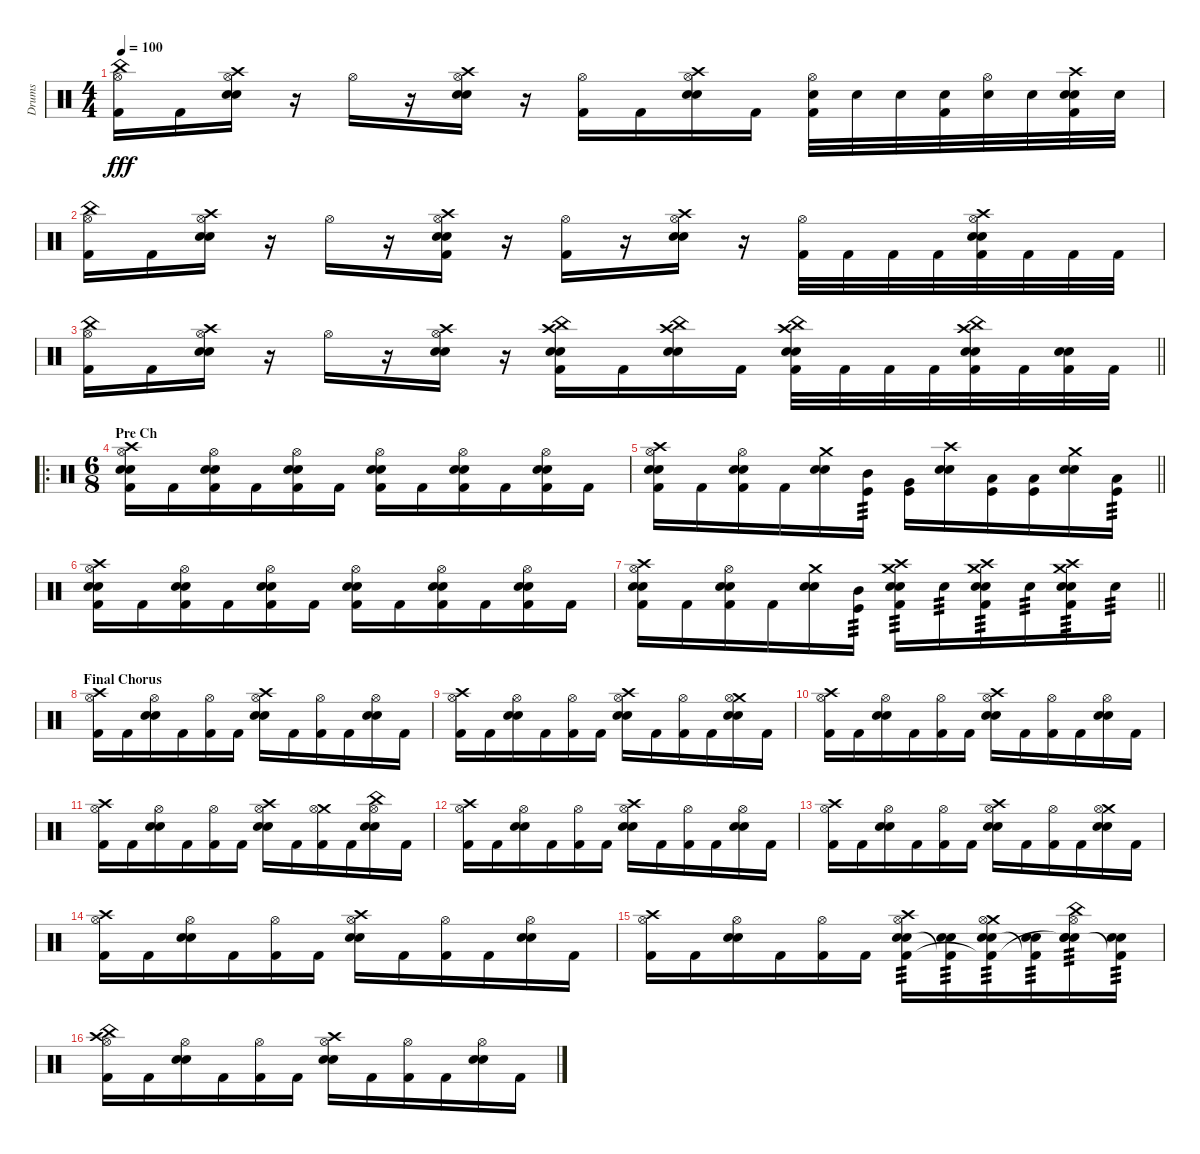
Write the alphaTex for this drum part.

\track ("Drums" "Drums") {instrument percussion}
\staff {score}
\articulation defaults
\ts (4 4)
\tempo 100
\clef neutral
\ks c
("Hi-Hat (open)" "China (hit)" "Kick (hit) 2").16{dy fff} "Kick (hit) 2".16 ("Hi-Hat (open)" "Crash high (hit)" "Snare (hit) 2" "Electric Snare (hit)").16 r.16 "Hi-Hat (open)".16 r.16 ("Hi-Hat (open)" "Crash high (hit)" "Snare (hit) 2" "Electric Snare (hit)").16 r.16 ("Hi-Hat (open)" "Kick (hit) 2").16 "Kick (hit) 2".16 ("Hi-Hat (open)" "Crash high (hit)" "Snare (hit) 2" "Electric Snare (hit)").16 "Kick (hit) 2".16 ("Hi-Hat (open)" "Electric Snare (hit)" "Kick (hit) 2").32 "Electric Snare (hit)".32 "Electric Snare (hit)".32 ("Electric Snare (hit)" "Kick (hit) 2").32 ("Hi-Hat (open)" "Electric Snare (hit)").32 "Electric Snare (hit)".32 ("Crash high (hit)" "Snare (hit) 2" "Electric Snare (hit)" "Kick (hit) 2").32 "Electric Snare (hit)".32 |
("Hi-Hat (open)" "China (hit)" "Kick (hit) 2").16 "Kick (hit) 2".16 ("Hi-Hat (open)" "Crash high (hit)" "Snare (hit) 2" "Electric Snare (hit)").16 r.16 "Hi-Hat (open)".16 r.16 ("Hi-Hat (open)" "Crash high (hit)" "Snare (hit) 2" "Electric Snare (hit)" "Kick (hit) 2").16 r.16 ("Hi-Hat (open)" "Kick (hit) 2").16 r.16 ("Hi-Hat (open)" "Crash high (hit)" "Snare (hit) 2" "Electric Snare (hit)").16 r.16 ("Hi-Hat (open)" "Kick (hit) 2").32 "Kick (hit) 2".32 "Kick (hit) 2".32 "Kick (hit) 2".32 ("Hi-Hat (open)" "Crash high (hit)" "Snare (hit) 2" "Electric Snare (hit)" "Kick (hit) 2").32 "Kick (hit) 2".32 "Kick (hit) 2".32 "Kick (hit) 2".32 |
\barLineRight lightlight
("Hi-Hat (open)" "China (hit)" "Kick (hit) 2").16 "Kick (hit) 2".16 ("Hi-Hat (open)" "Crash high (hit)" "Snare (hit) 2" "Electric Snare (hit)").16 r.16 "Hi-Hat (open)".16 r.16 ("Hi-Hat (open)" "Crash high (hit)" "Snare (hit) 2" "Electric Snare (hit)").16 r.16 ("China (hit)" "Crash high (hit)" "Snare (hit) 2" "Electric Snare (hit)" "Kick (hit) 2").16 "Kick (hit) 2".16 ("China (hit)" "Crash high (hit)" "Snare (hit) 2" "Electric Snare (hit)").16 "Kick (hit) 2".16 ("China (hit)" "Crash high (hit)" "Snare (hit) 2" "Electric Snare (hit)" "Kick (hit) 2").32 "Kick (hit) 2".32 "Kick (hit) 2".32 "Kick (hit) 2".32 ("China (hit)" "Crash high (hit)" "Snare (hit) 2" "Electric Snare (hit)" "Kick (hit) 2").32 "Kick (hit) 2".32 ("Snare (hit) 2" "Electric Snare (hit)" "Kick (hit) 2").32 "Kick (hit) 2".32 |
\ro
\ts (6 8)
\section ("" "Pre Ch")
("Crash high (hit)" "Hi-Hat (open)" "Snare (hit) 2" "Electric Snare (hit)" "Kick (hit) 2").16 "Kick (hit) 2".16 ("Hi-Hat (open)" "Snare (hit) 2" "Electric Snare (hit)" "Kick (hit) 2").16 "Kick (hit) 2".16 ("Hi-Hat (open)" "Snare (hit) 2" "Electric Snare (hit)" "Kick (hit) 2").16 "Kick (hit) 2".16 ("Hi-Hat (open)" "Snare (hit) 2" "Electric Snare (hit)" "Kick (hit) 2").16 "Kick (hit) 2".16 ("Hi-Hat (open)" "Snare (hit) 2" "Electric Snare (hit)" "Kick (hit) 2").16 "Kick (hit) 2".16 ("Hi-Hat (open)" "Snare (hit) 2" "Electric Snare (hit)" "Kick (hit) 2").16 "Kick (hit) 2".16 |
\barLineRight lightlight
("Crash high (hit)" "Hi-Hat (open)" "Snare (hit) 2" "Electric Snare (hit)" "Kick (hit) 2").16 "Kick (hit) 2".16 ("Hi-Hat (open)" "Snare (hit) 2" "Electric Snare (hit)" "Kick (hit) 2").16 "Kick (hit) 2".16 ("Crash medium (hit)" "Snare (hit) 2" "Electric Snare (hit)").16 ("Mid Tom (hit)" "Kick (hit)").16{tp 3} ("Very Low Tom (hit)" "Kick (hit)").16 ("Crash high (hit)" "Snare (hit) 2" "Electric Snare (hit)").16 ("Low Tom (hit)" "Kick (hit)").16 ("Low Floor Tom (hit)" "Kick (hit)").16 ("Crash medium (hit)" "Snare (hit) 2" "Electric Snare (hit)").16 ("Low Tom (hit)" "Kick (hit)").16{tp 3} |
("Crash high (hit)" "Hi-Hat (open)" "Snare (hit) 2" "Electric Snare (hit)" "Kick (hit) 2").16 "Kick (hit) 2".16 ("Hi-Hat (open)" "Snare (hit) 2" "Electric Snare (hit)" "Kick (hit) 2").16 "Kick (hit) 2".16 ("Hi-Hat (open)" "Snare (hit) 2" "Electric Snare (hit)" "Kick (hit) 2").16 "Kick (hit) 2".16 ("Hi-Hat (open)" "Snare (hit) 2" "Electric Snare (hit)" "Kick (hit) 2").16 "Kick (hit) 2".16 ("Hi-Hat (open)" "Snare (hit) 2" "Electric Snare (hit)" "Kick (hit) 2").16 "Kick (hit) 2".16 ("Hi-Hat (open)" "Snare (hit) 2" "Electric Snare (hit)" "Kick (hit) 2").16 "Kick (hit) 2".16 |
\barLineRight lightlight
("Crash high (hit)" "Hi-Hat (open)" "Snare (hit) 2" "Electric Snare (hit)" "Kick (hit) 2").16 "Kick (hit) 2".16 ("Hi-Hat (open)" "Snare (hit) 2" "Electric Snare (hit)" "Kick (hit) 2").16 "Kick (hit) 2".16 ("Crash medium (hit)" "Snare (hit) 2" "Electric Snare (hit)").16 ("Mid Tom (hit)" "Kick (hit)").16{tp 3} ("Crash high (hit)" "Crash medium (hit)" "Snare (hit) 2" "Electric Snare (hit)" "Kick (hit) 2").16{tp 3} "Electric Snare (hit)".16{tp 3} ("Crash high (hit)" "Crash medium (hit)" "Snare (hit) 2" "Electric Snare (hit)" "Kick (hit) 2").16{tp 3} "Electric Snare (hit)".16{tp 3} ("Crash high (hit)" "Crash medium (hit)" "Snare (hit) 2" "Electric Snare (hit)" "Kick (hit) 2").16{tp 3} "Electric Snare (hit)".16{tp 3} |
\section ("" "Final Chorus")
("Crash high (hit)" "Hi-Hat (open)" "Kick (hit) 2").16 "Kick (hit) 2".16 ("Hi-Hat (open)" "Snare (hit) 2" "Electric Snare (hit)").16 "Kick (hit) 2".16 ("Hi-Hat (open)" "Kick (hit) 2").16 "Kick (hit) 2".16 ("Crash high (hit)" "Hi-Hat (open)" "Snare (hit) 2" "Electric Snare (hit)").16 "Kick (hit) 2".16 ("Hi-Hat (open)" "Kick (hit) 2").16 "Kick (hit) 2".16 ("Hi-Hat (open)" "Snare (hit) 2" "Electric Snare (hit)").16 "Kick (hit) 2".16 |
("Crash high (hit)" "Hi-Hat (open)" "Kick (hit) 2").16 "Kick (hit) 2".16 ("Hi-Hat (open)" "Snare (hit) 2" "Electric Snare (hit)").16 "Kick (hit) 2".16 ("Hi-Hat (open)" "Kick (hit) 2").16 "Kick (hit) 2".16 ("Crash high (hit)" "Hi-Hat (open)" "Snare (hit) 2" "Electric Snare (hit)").16 "Kick (hit) 2".16 ("Hi-Hat (open)" "Kick (hit) 2").16 "Kick (hit) 2".16 ("Crash medium (hit)" "Hi-Hat (open)" "Snare (hit) 2" "Electric Snare (hit)").16 "Kick (hit) 2".16 |
("Crash high (hit)" "Hi-Hat (open)" "Kick (hit) 2").16 "Kick (hit) 2".16 ("Hi-Hat (open)" "Snare (hit) 2" "Electric Snare (hit)").16 "Kick (hit) 2".16 ("Hi-Hat (open)" "Kick (hit) 2").16 "Kick (hit) 2".16 ("Crash high (hit)" "Hi-Hat (open)" "Snare (hit) 2" "Electric Snare (hit)").16 "Kick (hit) 2".16 ("Hi-Hat (open)" "Kick (hit) 2").16 "Kick (hit) 2".16 ("Hi-Hat (open)" "Snare (hit) 2" "Electric Snare (hit)").16 "Kick (hit) 2".16 |
("Crash high (hit)" "Hi-Hat (open)" "Kick (hit) 2").16 "Kick (hit) 2".16 ("Hi-Hat (open)" "Snare (hit) 2" "Electric Snare (hit)").16 "Kick (hit) 2".16 ("Hi-Hat (open)" "Kick (hit) 2").16 "Kick (hit) 2".16 ("Crash high (hit)" "Hi-Hat (open)" "Snare (hit) 2" "Electric Snare (hit)").16 "Kick (hit) 2".16 ("Crash medium (hit)" "Hi-Hat (open)" "Kick (hit) 2").16 "Kick (hit) 2".16 ("China (hit)" "Hi-Hat (open)" "Snare (hit) 2" "Electric Snare (hit)").16 "Kick (hit) 2".16 |
("Crash high (hit)" "Hi-Hat (open)" "Kick (hit) 2").16 "Kick (hit) 2".16 ("Hi-Hat (open)" "Snare (hit) 2" "Electric Snare (hit)").16 "Kick (hit) 2".16 ("Hi-Hat (open)" "Kick (hit) 2").16 "Kick (hit) 2".16 ("Crash high (hit)" "Hi-Hat (open)" "Snare (hit) 2" "Electric Snare (hit)").16 "Kick (hit) 2".16 ("Hi-Hat (open)" "Kick (hit) 2").16 "Kick (hit) 2".16 ("Hi-Hat (open)" "Snare (hit) 2" "Electric Snare (hit)").16 "Kick (hit) 2".16 |
("Crash high (hit)" "Hi-Hat (open)" "Kick (hit) 2").16 "Kick (hit) 2".16 ("Hi-Hat (open)" "Snare (hit) 2" "Electric Snare (hit)").16 "Kick (hit) 2".16 ("Hi-Hat (open)" "Kick (hit) 2").16 "Kick (hit) 2".16 ("Crash high (hit)" "Hi-Hat (open)" "Snare (hit) 2" "Electric Snare (hit)").16 "Kick (hit) 2".16 ("Hi-Hat (open)" "Kick (hit) 2").16 "Kick (hit) 2".16 ("Crash medium (hit)" "Hi-Hat (open)" "Snare (hit) 2" "Electric Snare (hit)").16 "Kick (hit) 2".16 |
("Crash high (hit)" "Hi-Hat (open)" "Kick (hit) 2").16 "Kick (hit) 2".16 ("Hi-Hat (open)" "Snare (hit) 2" "Electric Snare (hit)").16 "Kick (hit) 2".16 ("Hi-Hat (open)" "Kick (hit) 2").16 "Kick (hit) 2".16 ("Crash high (hit)" "Hi-Hat (open)" "Snare (hit) 2" "Electric Snare (hit)").16 "Kick (hit) 2".16 ("Hi-Hat (open)" "Kick (hit) 2").16 "Kick (hit) 2".16 ("Hi-Hat (open)" "Snare (hit) 2" "Electric Snare (hit)").16 "Kick (hit) 2".16 |
("Crash high (hit)" "Hi-Hat (open)" "Kick (hit) 2").16 "Kick (hit) 2".16 ("Hi-Hat (open)" "Snare (hit) 2" "Electric Snare (hit)").16 "Kick (hit) 2".16 ("Hi-Hat (open)" "Kick (hit) 2").16 "Kick (hit) 2".16 ("Crash high (hit)" "Hi-Hat (open)" "Snare (hit) 2" "Electric Snare (hit)" "Kick (hit) 2").16{tp 3} ("Snare (hit) 2" "Electric Snare (hit)" "Kick (hit) 2"{t}).16{tp 3} ("Crash medium (hit)" "Hi-Hat (open)" "Snare (hit) 2" "Electric Snare (hit)" "Kick (hit) 2"{t}).16{tp 3} ("Snare (hit) 2" "Electric Snare (hit)" "Kick (hit) 2"{t}).16{tp 3} ("China (hit)" "Hi-Hat (open)" "Snare (hit) 2" "Electric Snare (hit)" "Snare (hit)"{t}).16{tp 3} ("Snare (hit) 2" "Electric Snare (hit)" "Kick (hit) 2"{t}).16{tp 3} |
("Crash high (hit)" "Hi-Hat (open)" "China (hit)" "Kick (hit) 2").16 "Kick (hit) 2".16 ("Hi-Hat (open)" "Snare (hit) 2" "Electric Snare (hit)").16 "Kick (hit) 2".16 ("Hi-Hat (open)" "Kick (hit) 2").16 "Kick (hit) 2".16 ("Crash high (hit)" "Hi-Hat (open)" "Snare (hit) 2" "Electric Snare (hit)").16 "Kick (hit) 2".16 ("Hi-Hat (open)" "Kick (hit) 2").16 "Kick (hit) 2".16 ("Hi-Hat (open)" "Snare (hit) 2" "Electric Snare (hit)").16 "Kick (hit) 2".16
